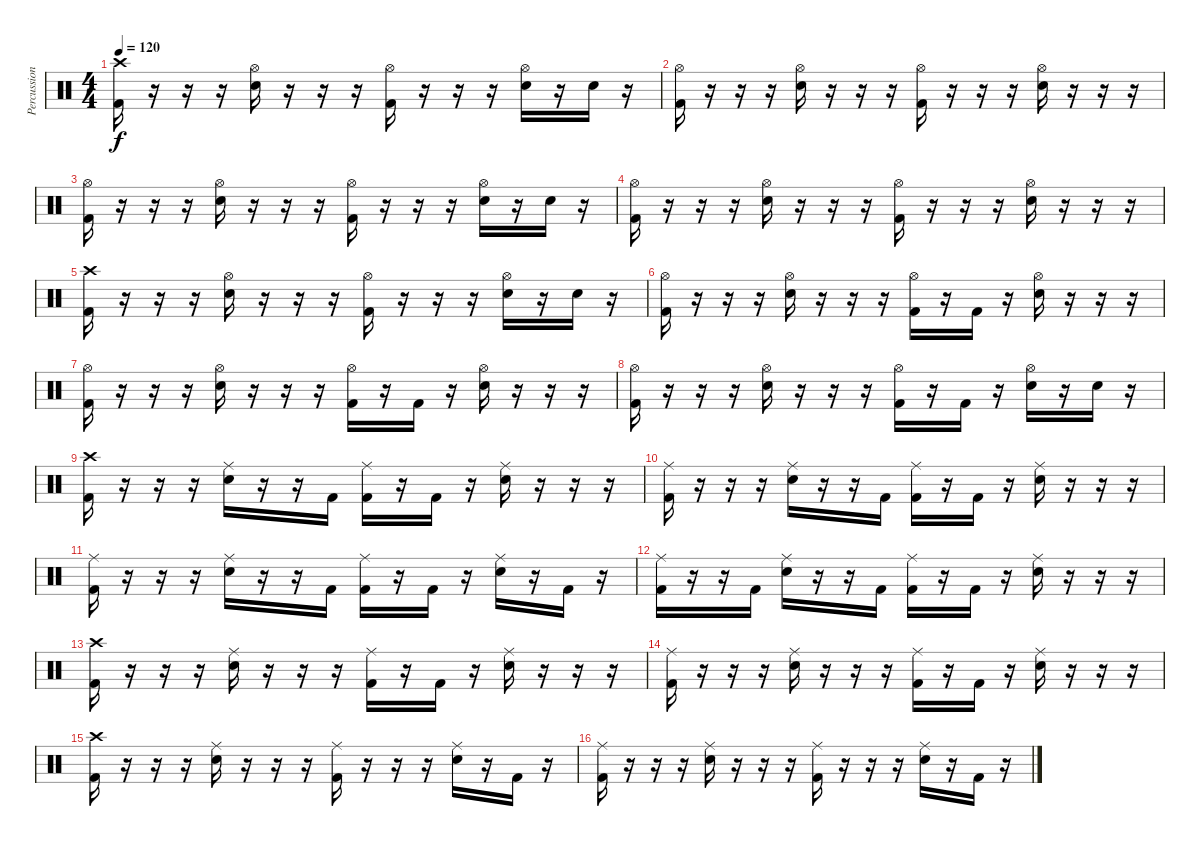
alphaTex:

\track ("Percussion" "Percussion") {instrument percussion}
\staff {score}
\articulation defaults
\ts (4 4)
\tempo 120
\clef neutral
\ks c
("Crash high (hit)" "Kick (hit) 2").16{dy f} r.16 r.16 r.16 ("Hi-Hat (open)" "Electric Snare (hit)").16 r.16 r.16 r.16 ("Hi-Hat (open)" "Kick (hit) 2").16 r.16 r.16 r.16 ("Hi-Hat (open)" "Electric Snare (hit)").16 r.16 "Electric Snare (hit)".16 r.16 |
("Hi-Hat (open)" "Kick (hit) 2").16 r.16 r.16 r.16 ("Hi-Hat (open)" "Electric Snare (hit)").16 r.16 r.16 r.16 ("Hi-Hat (open)" "Kick (hit) 2").16 r.16 r.16 r.16 ("Hi-Hat (open)" "Electric Snare (hit)").16 r.16 r.16 r.16 |
("Hi-Hat (open)" "Kick (hit) 2").16 r.16 r.16 r.16 ("Hi-Hat (open)" "Electric Snare (hit)").16 r.16 r.16 r.16 ("Hi-Hat (open)" "Kick (hit) 2").16 r.16 r.16 r.16 ("Hi-Hat (open)" "Electric Snare (hit)").16 r.16 "Electric Snare (hit)".16 r.16 |
("Hi-Hat (open)" "Kick (hit) 2").16 r.16 r.16 r.16 ("Hi-Hat (open)" "Electric Snare (hit)").16 r.16 r.16 r.16 ("Hi-Hat (open)" "Kick (hit) 2").16 r.16 r.16 r.16 ("Hi-Hat (open)" "Electric Snare (hit)").16 r.16 r.16 r.16 |
("Crash high (hit)" "Kick (hit) 2").16 r.16 r.16 r.16 ("Hi-Hat (open)" "Electric Snare (hit)").16 r.16 r.16 r.16 ("Hi-Hat (open)" "Kick (hit) 2").16 r.16 r.16 r.16 ("Hi-Hat (open)" "Electric Snare (hit)").16 r.16 "Electric Snare (hit)".16 r.16 |
("Hi-Hat (open)" "Kick (hit) 2").16 r.16 r.16 r.16 ("Hi-Hat (open)" "Electric Snare (hit)").16 r.16 r.16 r.16 ("Hi-Hat (open)" "Kick (hit) 2").16 r.16 "Kick (hit) 2".16 r.16 ("Hi-Hat (open)" "Electric Snare (hit)").16 r.16 r.16 r.16 |
("Hi-Hat (open)" "Kick (hit) 2").16 r.16 r.16 r.16 ("Hi-Hat (open)" "Electric Snare (hit)").16 r.16 r.16 r.16 ("Hi-Hat (open)" "Kick (hit) 2").16 r.16 "Kick (hit) 2".16 r.16 ("Hi-Hat (open)" "Electric Snare (hit)").16 r.16 r.16 r.16 |
("Hi-Hat (open)" "Kick (hit) 2").16 r.16 r.16 r.16 ("Hi-Hat (open)" "Electric Snare (hit)").16 r.16 r.16 r.16 ("Hi-Hat (open)" "Kick (hit) 2").16 r.16 "Kick (hit) 2".16 r.16 ("Hi-Hat (open)" "Electric Snare (hit)").16 r.16 "Electric Snare (hit)".16 r.16 |
("Crash high (hit)" "Kick (hit) 2").16 r.16 r.16 r.16 ("Ride (middle)" "Electric Snare (hit)").16 r.16 r.16 "Kick (hit) 2".16 ("Ride (middle)" "Kick (hit) 2").16 r.16 "Kick (hit) 2".16 r.16 ("Ride (middle)" "Electric Snare (hit)").16 r.16 r.16 r.16 |
("Ride (middle)" "Kick (hit) 2").16 r.16 r.16 r.16 ("Ride (middle)" "Electric Snare (hit)").16 r.16 r.16 "Kick (hit) 2".16 ("Ride (middle)" "Kick (hit) 2").16 r.16 "Kick (hit) 2".16 r.16 ("Ride (middle)" "Electric Snare (hit)").16 r.16 r.16 r.16 |
("Ride (middle)" "Kick (hit) 2").16 r.16 r.16 r.16 ("Ride (middle)" "Electric Snare (hit)").16 r.16 r.16 "Kick (hit) 2".16 ("Ride (middle)" "Kick (hit) 2").16 r.16 "Kick (hit) 2".16 r.16 ("Ride (middle)" "Electric Snare (hit)").16 r.16 "Kick (hit) 2".16 r.16 |
("Ride (middle)" "Kick (hit) 2").16 r.16 r.16 "Kick (hit) 2".16 ("Ride (middle)" "Electric Snare (hit)").16 r.16 r.16 "Kick (hit) 2".16 ("Ride (middle)" "Kick (hit) 2").16 r.16 "Kick (hit) 2".16 r.16 ("Ride (middle)" "Electric Snare (hit)").16 r.16 r.16 r.16 |
("Crash high (hit)" "Kick (hit) 2").16 r.16 r.16 r.16 ("Ride (middle)" "Electric Snare (hit)").16 r.16 r.16 r.16 ("Ride (middle)" "Kick (hit) 2").16 r.16 "Kick (hit) 2".16 r.16 ("Ride (middle)" "Electric Snare (hit)").16 r.16 r.16 r.16 |
("Ride (middle)" "Kick (hit) 2").16 r.16 r.16 r.16 ("Ride (middle)" "Electric Snare (hit)").16 r.16 r.16 r.16 ("Ride (middle)" "Kick (hit) 2").16 r.16 "Kick (hit) 2".16 r.16 ("Ride (middle)" "Electric Snare (hit)").16 r.16 r.16 r.16 |
("Crash high (hit)" "Kick (hit) 2").16 r.16 r.16 r.16 ("Ride (middle)" "Electric Snare (hit)").16 r.16 r.16 r.16 ("Ride (middle)" "Kick (hit) 2").16 r.16 r.16 r.16 ("Ride (middle)" "Electric Snare (hit)").16 r.16 "Kick (hit) 2".16 r.16 |
("Ride (middle)" "Kick (hit) 2").16 r.16 r.16 r.16 ("Ride (middle)" "Electric Snare (hit)").16 r.16 r.16 r.16 ("Ride (middle)" "Kick (hit) 2").16 r.16 r.16 r.16 ("Ride (middle)" "Electric Snare (hit)").16 r.16 "Kick (hit) 2".16 r.16
